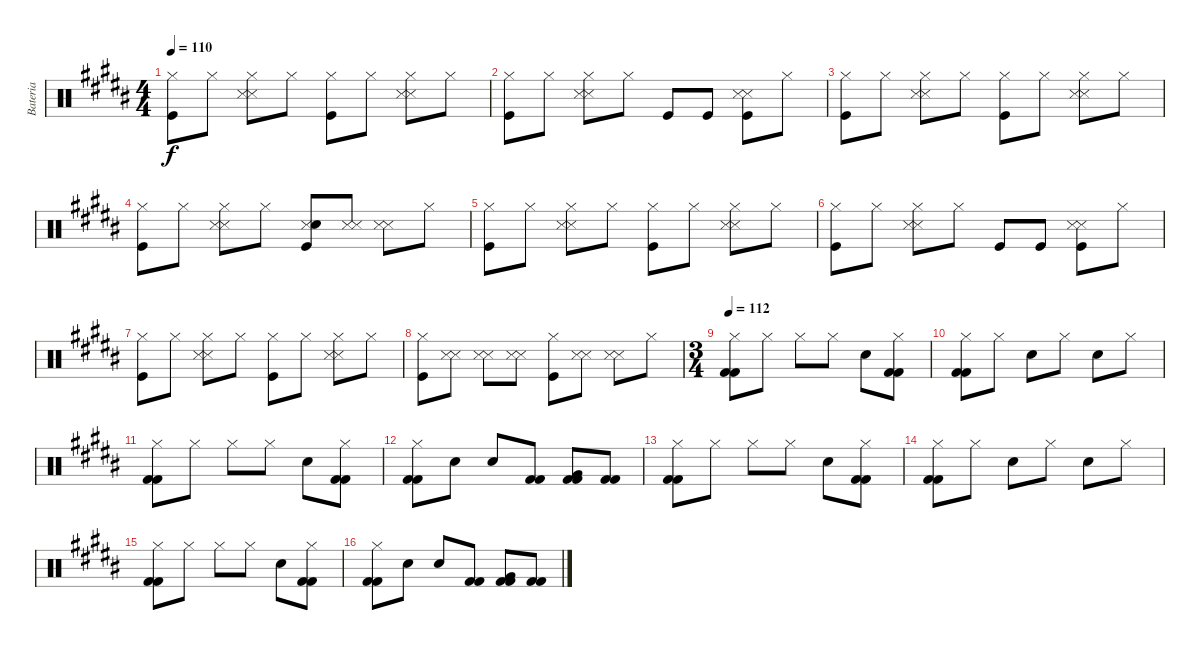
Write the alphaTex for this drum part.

\track ("Bateria" "Bateria") {instrument percussion}
\staff {score}
\articulation defaults
\ts (4 4)
\tempo 110
\clef neutral
\ks b
("Hi-Hat (closed)" "Kick (hit)").8{dy f} "Hi-Hat (closed)".8 ("Hi-Hat (closed)" "Metronome (hit)" "Metronome (hit)").8 "Hi-Hat (closed)".8 ("Hi-Hat (closed)" "Kick (hit)").8 "Hi-Hat (closed)".8 ("Hi-Hat (closed)" "Metronome (hit)" "Metronome (hit)").8 "Hi-Hat (closed)".8 |
("Hi-Hat (closed)" "Kick (hit)").8 "Hi-Hat (closed)".8 ("Hi-Hat (closed)" "Metronome (hit)" "Metronome (hit)").8 "Hi-Hat (closed)".8 "Kick (hit)".8 "Kick (hit)".8 ("Metronome (hit)" "Metronome (hit)" "Kick (hit)").8 "Hi-Hat (closed)".8 |
("Hi-Hat (closed)" "Kick (hit)").8 "Hi-Hat (closed)".8 ("Hi-Hat (closed)" "Metronome (hit)" "Metronome (hit)").8 "Hi-Hat (closed)".8 ("Hi-Hat (closed)" "Kick (hit)").8 "Hi-Hat (closed)".8 ("Hi-Hat (closed)" "Metronome (hit)" "Metronome (hit)").8 "Hi-Hat (closed)".8 |
("Hi-Hat (closed)" "Kick (hit)").8 "Hi-Hat (closed)".8 ("Hi-Hat (closed)" "Metronome (hit)" "Metronome (hit)").8 "Hi-Hat (closed)".8 ("Metronome (hit)" "Snare (hit)" "Kick (hit)").8 ("Metronome (hit)" "Metronome (hit)").8 ("Metronome (hit)" "Metronome (hit)").8 "Hi-Hat (closed)".8 |
("Hi-Hat (closed)" "Kick (hit)").8 "Hi-Hat (closed)".8 ("Hi-Hat (closed)" "Metronome (hit)" "Metronome (hit)").8 "Hi-Hat (closed)".8 ("Hi-Hat (closed)" "Kick (hit)").8 "Hi-Hat (closed)".8 ("Hi-Hat (closed)" "Metronome (hit)" "Metronome (hit)").8 "Hi-Hat (closed)".8 |
("Hi-Hat (closed)" "Kick (hit)").8 "Hi-Hat (closed)".8 ("Hi-Hat (closed)" "Metronome (hit)" "Metronome (hit)").8 "Hi-Hat (closed)".8 "Kick (hit)".8 "Kick (hit)".8 ("Metronome (hit)" "Metronome (hit)" "Kick (hit)").8 "Hi-Hat (closed)".8 |
("Hi-Hat (closed)" "Kick (hit)").8 "Hi-Hat (closed)".8 ("Hi-Hat (closed)" "Metronome (hit)" "Metronome (hit)").8 "Hi-Hat (closed)".8 ("Hi-Hat (closed)" "Kick (hit)").8 "Hi-Hat (closed)".8 ("Hi-Hat (closed)" "Metronome (hit)" "Metronome (hit)").8 "Hi-Hat (closed)".8 |
("Hi-Hat (closed)" "Kick (hit)").8 ("Metronome (hit)" "Metronome (hit)").8 ("Metronome (hit)" "Metronome (hit)").8 ("Metronome (hit)" "Metronome (hit)").8 ("Hi-Hat (closed)" "Kick (hit)").8 ("Metronome (hit)" "Metronome (hit)").8 ("Metronome (hit)" "Metronome (hit)").8 "Hi-Hat (closed)".8 |
\ts (3 4)
\tempo 112
("Hi-Hat (closed)" "Kick (hit) 2" "Kick (hit) 2").8 "Hi-Hat (closed)".8 "Hi-Hat (closed)".8 "Hi-Hat (closed)".8 "Snare (hit) 2".8 ("Hi-Hat (closed)" "Kick (hit) 2" "Kick (hit) 2").8 |
("Hi-Hat (closed)" "Kick (hit) 2" "Kick (hit) 2").8 "Hi-Hat (closed)".8 "Snare (hit) 2".8 "Hi-Hat (closed)".8 "Snare (hit) 2".8 "Hi-Hat (closed)".8 |
("Hi-Hat (closed)" "Kick (hit) 2" "Kick (hit) 2").8 "Hi-Hat (closed)".8 "Hi-Hat (closed)".8 "Hi-Hat (closed)".8 "Snare (hit) 2".8 ("Hi-Hat (closed)" "Kick (hit) 2" "Kick (hit) 2").8 |
("Hi-Hat (closed)" "Kick (hit) 2" "Kick (hit) 2").8 "Snare (hit) 2".8 "Snare (hit) 2".8 ("Kick (hit) 2" "Kick (hit) 2").8 ("Very Low Tom (hit)" "Kick (hit) 2" "Kick (hit) 2").8 ("Kick (hit) 2" "Kick (hit) 2").8 |
("Hi-Hat (closed)" "Kick (hit) 2" "Kick (hit) 2").8 "Hi-Hat (closed)".8 "Hi-Hat (closed)".8 "Hi-Hat (closed)".8 "Snare (hit) 2".8 ("Hi-Hat (closed)" "Kick (hit) 2" "Kick (hit) 2").8 |
("Hi-Hat (closed)" "Kick (hit) 2" "Kick (hit) 2").8 "Hi-Hat (closed)".8 "Snare (hit) 2".8 "Hi-Hat (closed)".8 "Snare (hit) 2".8 "Hi-Hat (closed)".8 |
("Hi-Hat (closed)" "Kick (hit) 2" "Kick (hit) 2").8 "Hi-Hat (closed)".8 "Hi-Hat (closed)".8 "Hi-Hat (closed)".8 "Snare (hit) 2".8 ("Hi-Hat (closed)" "Kick (hit) 2" "Kick (hit) 2").8 |
("Hi-Hat (closed)" "Kick (hit) 2" "Kick (hit) 2").8 "Snare (hit) 2".8 "Snare (hit) 2".8 ("Kick (hit) 2" "Kick (hit) 2").8 ("Very Low Tom (hit)" "Kick (hit) 2" "Kick (hit) 2").8 ("Kick (hit) 2" "Kick (hit) 2").8
